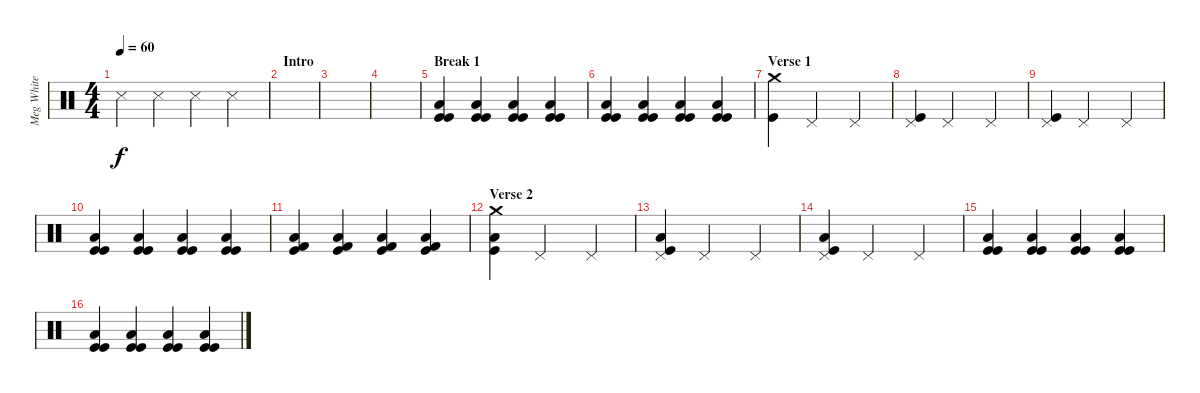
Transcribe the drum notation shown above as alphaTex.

\track ("Meg White (drums)" "Meg White ") {instrument percussion}
\staff {score}
\articulation defaults
\ts (4 4)
\tempo 60
\clef neutral
\ks c "Snare (side stick) 3".4{dy f} "Snare (side stick) 3".4 "Snare (side stick) 3".4 "Snare (side stick) 3".4
|
\section ("" "Intro")
|
|
|
\section ("" "Break 1")
("Low Floor Tom (hit)" "Kick (hit)" "Kick (hit)").4 ("Low Floor Tom (hit)" "Kick (hit)" "Kick (hit)").4 ("Low Floor Tom (hit)" "Kick (hit)" "Kick (hit)").4 ("Low Floor Tom (hit)" "Kick (hit)" "Kick (hit)").4 |
("Low Floor Tom (hit)" "Kick (hit)" "Kick (hit)").4 ("Low Floor Tom (hit)" "Kick (hit)" "Kick (hit)").4 ("Low Floor Tom (hit)" "Kick (hit)" "Kick (hit)").4 ("Low Floor Tom (hit)" "Kick (hit)" "Kick (hit)").4 |
\section ("" "Verse 1")
("Kick (hit)" "Crash medium (hit)").4 "Pedal Hi-Hat (hit)".2 "Pedal Hi-Hat (hit)".4 |
("Kick (hit)" "Pedal Hi-Hat (hit)").4 "Pedal Hi-Hat (hit)".2 "Pedal Hi-Hat (hit)".4 |
("Kick (hit)" "Pedal Hi-Hat (hit)").4 "Pedal Hi-Hat (hit)".2 "Pedal Hi-Hat (hit)".4 |
("Low Floor Tom (hit)" "Kick (hit)" "Kick (hit)").4 ("Low Floor Tom (hit)" "Kick (hit)" "Kick (hit)").4 ("Low Floor Tom (hit)" "Kick (hit)" "Kick (hit)").4 ("Low Floor Tom (hit)" "Kick (hit)" "Kick (hit)").4 |
("Low Floor Tom (hit)" "Kick (hit)" "Kick (hit) 2").4 ("Low Floor Tom (hit)" "Kick (hit)" "Kick (hit) 2").4 ("Low Floor Tom (hit)" "Kick (hit)" "Kick (hit) 2").4 ("Low Floor Tom (hit)" "Kick (hit)" "Kick (hit) 2").4 |
\section ("" "Verse 2")
("Low Floor Tom (hit)" "Kick (hit)" "Crash medium (hit)").4 "Pedal Hi-Hat (hit)".2 "Pedal Hi-Hat (hit)".4 |
("Low Floor Tom (hit)" "Kick (hit)" "Pedal Hi-Hat (hit)").4 "Pedal Hi-Hat (hit)".2 "Pedal Hi-Hat (hit)".4 |
("Low Floor Tom (hit)" "Kick (hit)" "Pedal Hi-Hat (hit)").4 "Pedal Hi-Hat (hit)".2 "Pedal Hi-Hat (hit)".4 |
("Low Floor Tom (hit)" "Kick (hit)" "Kick (hit)").4 ("Low Floor Tom (hit)" "Kick (hit)" "Kick (hit)").4 ("Low Floor Tom (hit)" "Kick (hit)" "Kick (hit)").4 ("Low Floor Tom (hit)" "Kick (hit)" "Kick (hit)").4 |
("Low Floor Tom (hit)" "Kick (hit)" "Kick (hit)").4 ("Low Floor Tom (hit)" "Kick (hit)" "Kick (hit)").4 ("Low Floor Tom (hit)" "Kick (hit)" "Kick (hit)").4 ("Low Floor Tom (hit)" "Kick (hit)" "Kick (hit)").4
